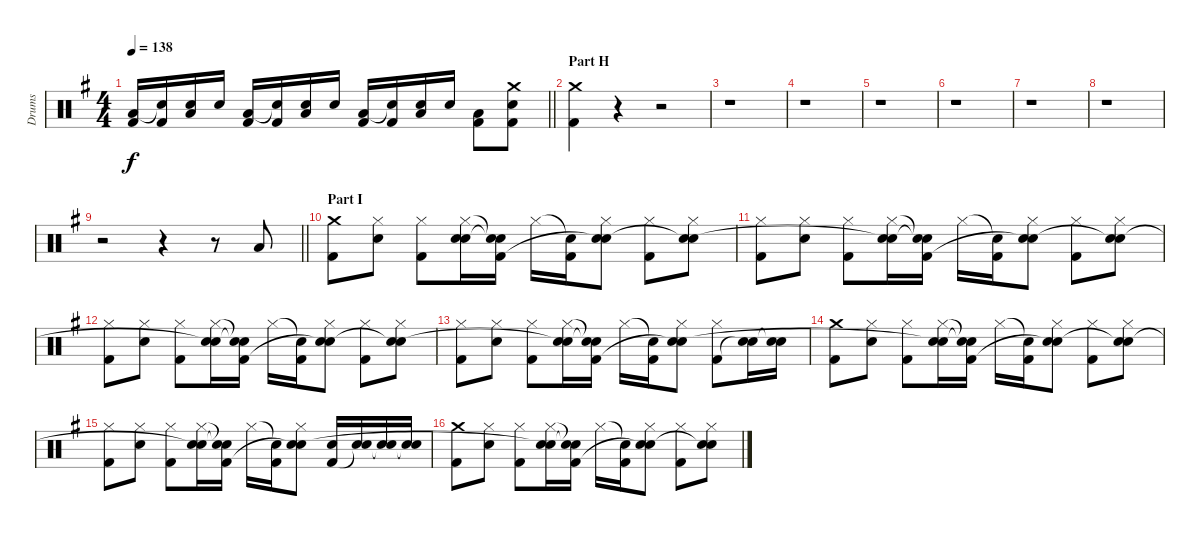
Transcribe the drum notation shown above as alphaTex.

\track ("Drums" "Drums") {instrument percussion}
\staff {score}
\articulation defaults
\ts (4 4)
\tempo 138
\clef neutral
\barLineRight lightlight
\ks g
("Low Floor Tom (hit)" "Kick (hit) 2").16{dy f} ("Snare (hit)"{t} "Kick (hit) 2").16 ("Electric Snare (hit)" "Low Floor Tom (hit)").16 "Electric Snare (hit)".16 ("Low Floor Tom (hit)" "Kick (hit) 2").16 ("Snare (hit)"{t} "Kick (hit) 2").16 ("Electric Snare (hit)" "Low Floor Tom (hit)").16 "Electric Snare (hit)".16 ("Low Floor Tom (hit)" "Kick (hit) 2").16 ("Snare (hit)"{t} "Kick (hit) 2").16 ("Electric Snare (hit)" "Low Floor Tom (hit)").16 "Electric Snare (hit)".16 ("Low Floor Tom (hit)" "Kick (hit) 2").8 ("Crash medium (hit)" "Electric Snare (hit)" "Kick (hit) 2"{t}).8 |
\section ("" "Part H")
("Crash medium (hit)" "Kick (hit) 2").4 r.4 r.2 |
r.1 |
r.1 |
r.1 |
r.1 |
r.1 |
r.1 |
\barLineRight lightlight
r.2 r.4 r.8 "Low Floor Tom (hit)".8 |
\section ("" "Part I")
("Crash medium (hit)" "Kick (hit) 2").8 ("Hi-Hat (closed)" "Electric Snare (hit)").8 ("Hi-Hat (closed)" "Kick (hit) 2").8 ("Hi-Hat (closed)" "Electric Snare (hit)" "Snare (hit)").16 ("Snare (hit)"{t} "Snare (hit)"{t} "Kick (hit) 2").16 "Hi-Hat (closed)".16 ("Snare (hit)"{t} "Kick (hit) 2").16 ("Hi-Hat (closed)" "Electric Snare (hit)" "Snare (hit)"{t}).8 ("Hi-Hat (closed)" "Kick (hit) 2").8 ("Hi-Hat (closed)" "Electric Snare (hit)" "Snare (hit)"{t}).8 |
("Hi-Hat (closed)" "Kick (hit) 2").8 ("Hi-Hat (closed)" "Electric Snare (hit)").8 ("Hi-Hat (closed)" "Kick (hit) 2").8 ("Hi-Hat (closed)" "Electric Snare (hit)" "Snare (hit)"{t}).16 ("Snare (hit)"{t} "Snare (hit)"{t} "Kick (hit) 2").16 "Hi-Hat (closed)".16 ("Snare (hit)"{t} "Kick (hit) 2").16 ("Hi-Hat (closed)" "Electric Snare (hit)" "Snare (hit)"{t}).8 ("Hi-Hat (closed)" "Kick (hit) 2").8 ("Hi-Hat (closed)" "Electric Snare (hit)" "Snare (hit)"{t}).8 |
("Hi-Hat (closed)" "Kick (hit) 2").8 ("Hi-Hat (closed)" "Electric Snare (hit)").8 ("Hi-Hat (closed)" "Kick (hit) 2").8 ("Hi-Hat (closed)" "Electric Snare (hit)" "Snare (hit)"{t}).16 ("Snare (hit)"{t} "Snare (hit)"{t} "Kick (hit) 2").16 "Hi-Hat (closed)".16 ("Snare (hit)"{t} "Kick (hit) 2").16 ("Hi-Hat (closed)" "Electric Snare (hit)" "Snare (hit)"{t}).8 ("Hi-Hat (closed)" "Kick (hit) 2").8 ("Hi-Hat (closed)" "Electric Snare (hit)" "Snare (hit)"{t}).8 |
("Hi-Hat (closed)" "Kick (hit) 2").8 ("Hi-Hat (closed)" "Electric Snare (hit)").8 ("Hi-Hat (closed)" "Kick (hit) 2").8 ("Hi-Hat (closed)" "Electric Snare (hit)" "Snare (hit)"{t}).16 ("Snare (hit)"{t} "Snare (hit)"{t} "Kick (hit) 2").16 "Hi-Hat (closed)".16 ("Snare (hit)"{t} "Kick (hit) 2").16 ("Hi-Hat (closed)" "Electric Snare (hit)" "Snare (hit)"{t}).8 ("Hi-Hat (closed)" "Kick (hit) 2").8 ("Electric Snare (hit)" "Snare (hit)"{t}).16 ("Electric Snare (hit)" "Snare (hit)"{t}).16 |
("Crash medium (hit)" "Kick (hit) 2").8 ("Hi-Hat (closed)" "Electric Snare (hit)").8 ("Hi-Hat (closed)" "Kick (hit) 2").8 ("Hi-Hat (closed)" "Electric Snare (hit)" "Snare (hit)"{t}).16 ("Snare (hit)"{t} "Snare (hit)"{t} "Kick (hit) 2").16 "Hi-Hat (closed)".16 ("Snare (hit)"{t} "Kick (hit) 2").16 ("Hi-Hat (closed)" "Electric Snare (hit)" "Snare (hit)"{t}).8 ("Hi-Hat (closed)" "Kick (hit) 2").8 ("Hi-Hat (closed)" "Electric Snare (hit)" "Snare (hit)"{t}).8 |
("Hi-Hat (closed)" "Kick (hit) 2").8 ("Hi-Hat (closed)" "Electric Snare (hit)").8 ("Hi-Hat (closed)" "Kick (hit) 2").8 ("Hi-Hat (closed)" "Electric Snare (hit)" "Snare (hit)"{t}).16 ("Snare (hit)"{t} "Snare (hit)"{t} "Kick (hit) 2").16 "Hi-Hat (closed)".16 ("Snare (hit)"{t} "Kick (hit) 2").16 ("Hi-Hat (closed)" "Electric Snare (hit)" "Snare (hit)"{t}).8 ("Electric Snare (hit)" "Kick (hit) 2").16 ("Electric Snare (hit)" "Snare (hit)"{t}).16 ("Electric Snare (hit)" "Snare (hit)"{t}).16 ("Electric Snare (hit)" "Snare (hit)"{t}).16 |
("Crash medium (hit)" "Kick (hit) 2").8 ("Hi-Hat (closed)" "Electric Snare (hit)").8 ("Hi-Hat (closed)" "Kick (hit) 2").8 ("Hi-Hat (closed)" "Electric Snare (hit)" "Snare (hit)"{t}).16 ("Snare (hit)"{t} "Snare (hit)"{t} "Kick (hit) 2").16 "Hi-Hat (closed)".16 ("Snare (hit)"{t} "Kick (hit) 2").16 ("Hi-Hat (closed)" "Electric Snare (hit)" "Snare (hit)"{t}).8 ("Hi-Hat (closed)" "Kick (hit) 2").8 ("Hi-Hat (closed)" "Electric Snare (hit)" "Snare (hit)"{t}).8
